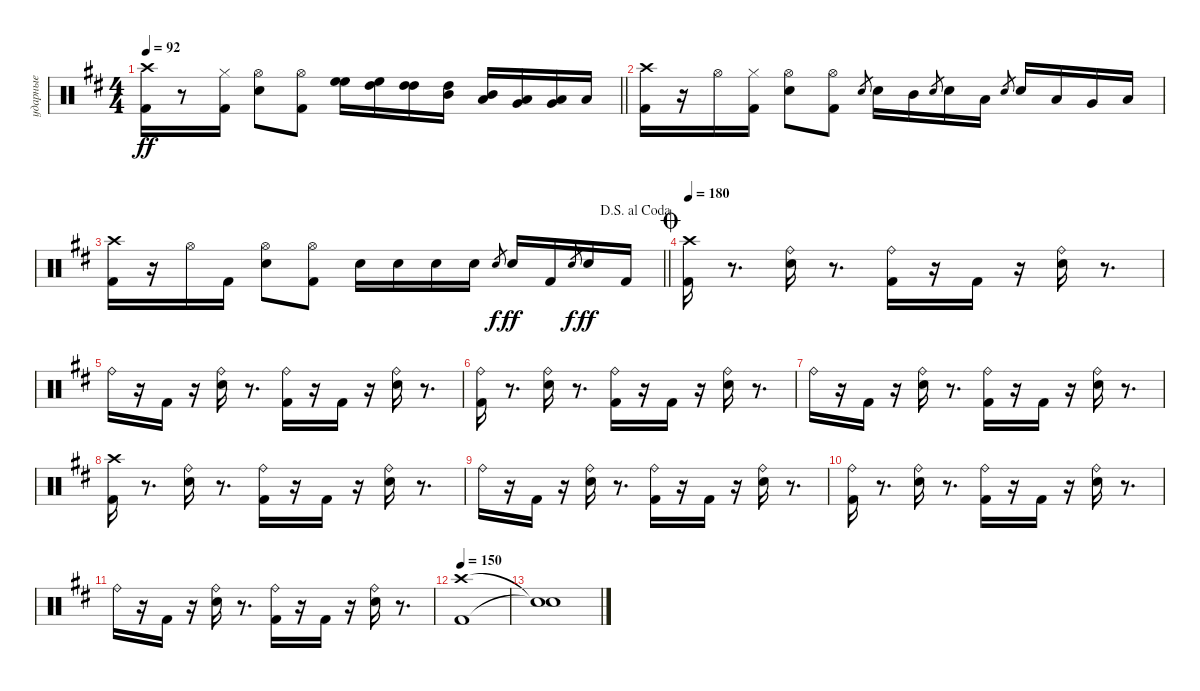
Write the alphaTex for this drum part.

\track ("ударные" "ударные") {instrument percussion}
\staff {score}
\articulation defaults
\ts (4 4)
\tempo 92
\clef neutral
\barLineRight lightlight
\ks bminor
("Crash high (hit)" "Kick (hit) 2").16{dy ff} r.8 ("Hi-Hat (closed)" "Kick (hit) 2").16 ("Snare (hit) 2" "Hi-Hat (open)").8 ("Kick (hit) 2" "Hi-Hat (open)").8 ("High Floor Tom (hit)" "High Floor Tom (hit)").16 ("High Floor Tom (hit)" "High Tom (hit)").16 ("High Tom (hit)" "High Tom (hit)").16 ("High Tom (hit)" "Mid Tom (hit)").16 ("Mid Tom (hit)" "Low Tom (hit)").16 ("Low Tom (hit)" "Very Low Tom (hit)").16 ("Very Low Tom (hit)" "Low Floor Tom (hit)").16 "Low Floor Tom (hit)".16 |
\section ("" "")
("Crash high (hit)" "Kick (hit) 2").16 r.16 "Hi-Hat (open)".16 ("Hi-Hat (closed)" "Kick (hit) 2").16 ("Snare (hit) 2" "Hi-Hat (open)").8 ("Kick (hit) 2" "Hi-Hat (open)").8 "Snare (hit) 2".8{gr} "Snare (hit) 2".16 "Mid Tom (hit)".16 "Snare (hit) 2".8{gr} "Snare (hit) 2".16 "Low Tom (hit)".16 "Snare (hit) 2".8{gr} "Snare (hit) 2".16 "Low Tom (hit)".16 "Very Low Tom (hit)".16 "Low Floor Tom (hit)".16 |
\jump dalsegnoalcoda
\barLineRight lightlight
("Crash high (hit)" "Kick (hit) 2").16 r.16 "Hi-Hat (open)".16 "Kick (hit) 2".16 ("Snare (hit) 2" "Hi-Hat (open)").8 ("Kick (hit) 2" "Hi-Hat (open)").8 "Snare (hit) 2".16 "Snare (hit) 2".16 "Snare (hit) 2".16 "Snare (hit) 2".16 "Snare (hit) 2".8{gr dy f} "Snare (hit) 2".16{dy ff} "Kick (hit) 2".16 "Snare (hit) 2".8{gr dy f} "Snare (hit) 2".16{dy ff} "Kick (hit) 2".16 |
\section ("" "")
\jump coda
\tempo 180
("Crash high (hit)" "Kick (hit) 2").16 r.8{d} ("Electric Snare (hit)" "Ride (bell)").16 r.8{d} ("Kick (hit) 2" "Ride (bell)").16 r.16 "Kick (hit) 2".16 r.16 ("Electric Snare (hit)" "Ride (bell)").16 r.8{d} |
"Ride (bell)".16 r.16 "Kick (hit) 2".16 r.16 ("Electric Snare (hit)" "Ride (bell)").16 r.8{d} ("Kick (hit) 2" "Ride (bell)").16 r.16 "Kick (hit) 2".16 r.16 ("Electric Snare (hit)" "Ride (bell)").16 r.8{d} |
("Kick (hit) 2" "Ride (bell)").16 r.8{d} ("Electric Snare (hit)" "Ride (bell)").16 r.8{d} ("Kick (hit) 2" "Ride (bell)").16 r.16 "Kick (hit) 2".16 r.16 ("Electric Snare (hit)" "Ride (bell)").16 r.8{d} |
"Ride (bell)".16 r.16 "Kick (hit) 2".16 r.16 ("Electric Snare (hit)" "Ride (bell)").16 r.8{d} ("Kick (hit) 2" "Ride (bell)").16 r.16 "Kick (hit) 2".16 r.16 ("Electric Snare (hit)" "Ride (bell)").16 r.8{d} |
("Crash high (hit)" "Kick (hit) 2").16 r.8{d} ("Electric Snare (hit)" "Ride (bell)").16 r.8{d} ("Kick (hit) 2" "Ride (bell)").16 r.16 "Kick (hit) 2".16 r.16 ("Electric Snare (hit)" "Ride (bell)").16 r.8{d} |
"Ride (bell)".16 r.16 "Kick (hit) 2".16 r.16 ("Electric Snare (hit)" "Ride (bell)").16 r.8{d} ("Kick (hit) 2" "Ride (bell)").16 r.16 "Kick (hit) 2".16 r.16 ("Electric Snare (hit)" "Ride (bell)").16 r.8{d} |
("Kick (hit) 2" "Ride (bell)").16 r.8{d} ("Electric Snare (hit)" "Ride (bell)").16 r.8{d} ("Kick (hit) 2" "Ride (bell)").16 r.16 "Kick (hit) 2".16 r.16 ("Electric Snare (hit)" "Ride (bell)").16 r.8{d} |
"Ride (bell)".16 r.16 "Kick (hit) 2".16 r.16 ("Electric Snare (hit)" "Ride (bell)").16 r.8{d} ("Kick (hit) 2" "Ride (bell)").16 r.16 "Kick (hit) 2".16 r.16 ("Electric Snare (hit)" "Ride (bell)").16 r.8{d} |
\tempo 150
("Kick (hit) 2" "Crash high (hit)").1 |
("Snare (hit)"{t} "Snare (hit)"{t}).1
